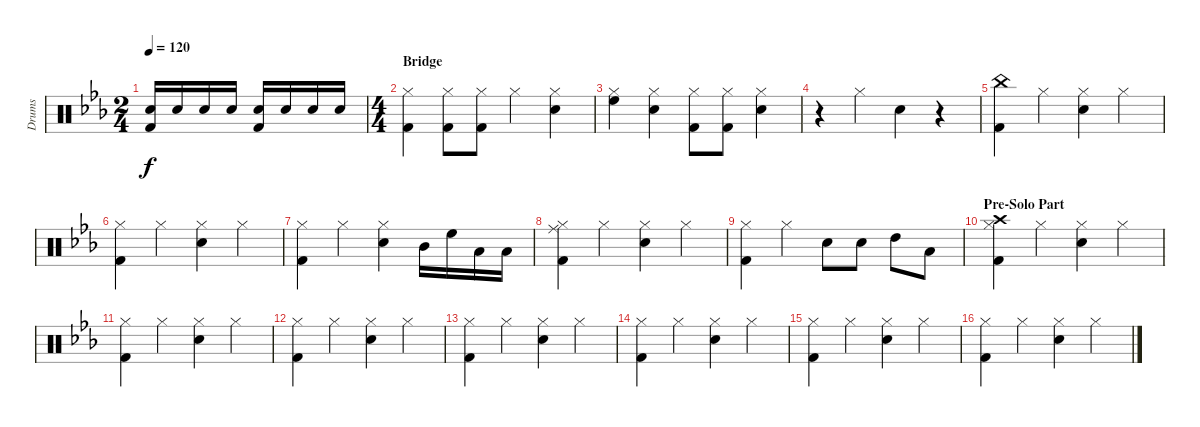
\track ("Drums" "Drums") {instrument percussion}
\staff {score}
\articulation defaults
\ts (2 4)
\tempo 120
\clef neutral
\ks cminor
("Snare (hit) 2" "Kick (hit) 2").16{dy f} "Snare (hit) 2".16 "Snare (hit) 2".16 "Snare (hit) 2".16 ("Snare (hit) 2" "Kick (hit) 2").16 "Snare (hit) 2".16 "Snare (hit) 2".16 "Snare (hit) 2".16 |
\ts (4 4)
\section ("" "Bridge")
("Hi-Hat (closed)" "Kick (hit) 2").4 ("Hi-Hat (closed)" "Kick (hit) 2").8 ("Hi-Hat (closed)" "Kick (hit) 2").8 "Hi-Hat (closed)".4 ("Hi-Hat (closed)" "Snare (hit) 2").4 |
("Hi-Hat (closed)" "High Floor Tom (hit)").4 ("Hi-Hat (closed)" "Snare (hit) 2").4 ("Hi-Hat (closed)" "Kick (hit) 2").8 ("Hi-Hat (closed)" "Kick (hit) 2").8 ("Hi-Hat (closed)" "Snare (hit) 2").4 |
r.4 "Hi-Hat (closed)".4 "Snare (hit) 2".4 r.4 |
("China (hit)" "Kick (hit) 2").4 "Hi-Hat (closed)".4 ("Hi-Hat (closed)" "Snare (hit) 2").4 "Hi-Hat (closed)".4 |
("Hi-Hat (closed)" "Kick (hit) 2").4 "Hi-Hat (closed)".4 ("Hi-Hat (closed)" "Snare (hit) 2").4 "Hi-Hat (closed)".4 |
("Hi-Hat (closed)" "Kick (hit) 2").4 "Hi-Hat (closed)".4 ("Hi-Hat (closed)" "Snare (hit) 2").4 "Mid Tom (hit)".16 "High Floor Tom (hit)".16 "Low Tom (hit)".16 "Low Floor Tom (hit)".16 |
("Hi-Hat (closed)" "Ride (middle)" "Kick (hit) 2").4 "Hi-Hat (closed)".4 ("Hi-Hat (closed)" "Snare (hit) 2").4 "Hi-Hat (closed)".4 |
("Hi-Hat (closed)" "Kick (hit) 2").4 "Hi-Hat (closed)".4 "Snare (hit) 2".8 "Snare (hit) 2".8 "High Tom (hit)".8 "Low Tom (hit)".8 |
\section ("" "Pre-Solo Part")
("Hi-Hat (closed)" "Crash high (hit)" "Kick (hit) 2").4 "Hi-Hat (closed)".4 ("Hi-Hat (closed)" "Snare (hit) 2").4 "Hi-Hat (closed)".4 |
("Hi-Hat (closed)" "Kick (hit) 2").4 "Hi-Hat (closed)".4 ("Hi-Hat (closed)" "Snare (hit) 2").4 "Hi-Hat (closed)".4 |
("Hi-Hat (closed)" "Kick (hit) 2").4 "Hi-Hat (closed)".4 ("Hi-Hat (closed)" "Snare (hit) 2").4 "Hi-Hat (closed)".4 |
("Hi-Hat (closed)" "Kick (hit) 2").4 "Hi-Hat (closed)".4 ("Hi-Hat (closed)" "Snare (hit) 2").4 "Hi-Hat (closed)".4 |
("Hi-Hat (closed)" "Kick (hit) 2").4 "Hi-Hat (closed)".4 ("Hi-Hat (closed)" "Snare (hit) 2").4 "Hi-Hat (closed)".4 |
("Hi-Hat (closed)" "Kick (hit) 2").4 "Hi-Hat (closed)".4 ("Hi-Hat (closed)" "Snare (hit) 2").4 "Hi-Hat (closed)".4 |
("Hi-Hat (closed)" "Kick (hit) 2").4 "Hi-Hat (closed)".4 ("Hi-Hat (closed)" "Snare (hit) 2").4 "Hi-Hat (closed)".4
